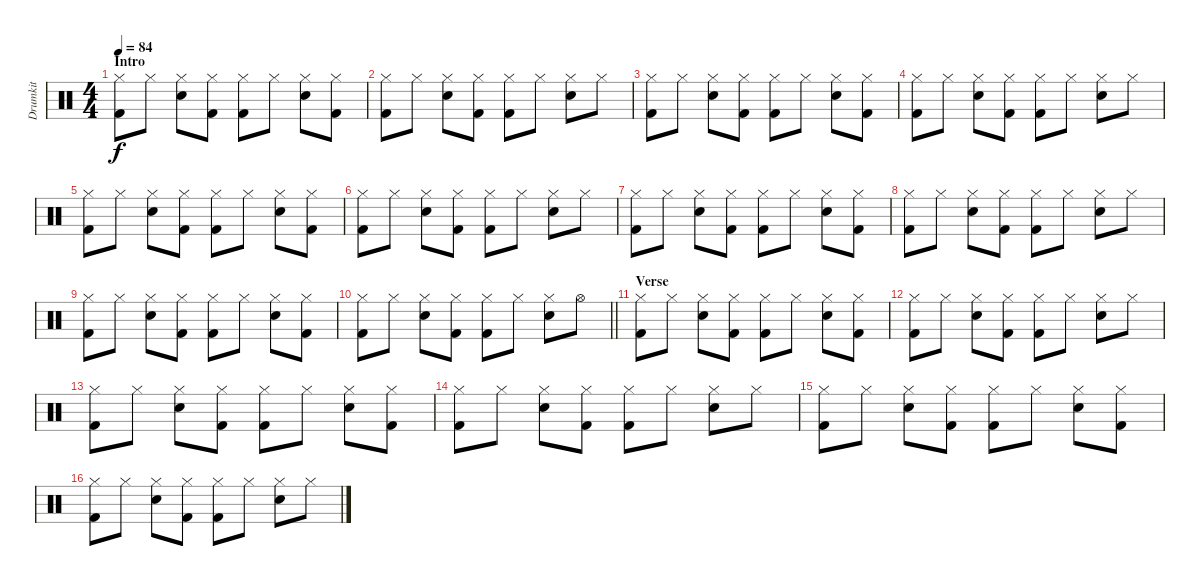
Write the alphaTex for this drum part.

\track ("Drumkit" "Drumkit") {instrument percussion}
\staff {score}
\articulation defaults
\ts (4 4)
\section ("" "Intro")
\tempo 84
\clef neutral
\ks c
("Kick (hit) 2" "Hi-Hat (closed)").8{dy f} "Hi-Hat (closed)".8 ("Hi-Hat (closed)" "Snare (hit) 2").8 ("Hi-Hat (closed)" "Kick (hit) 2").8 ("Kick (hit) 2" "Hi-Hat (closed)").8 "Hi-Hat (closed)".8 ("Hi-Hat (closed)" "Snare (hit) 2").8 ("Hi-Hat (closed)" "Kick (hit) 2").8 |
("Kick (hit) 2" "Hi-Hat (closed)").8 "Hi-Hat (closed)".8 ("Hi-Hat (closed)" "Snare (hit) 2").8 ("Hi-Hat (closed)" "Kick (hit) 2").8 ("Kick (hit) 2" "Hi-Hat (closed)").8 "Hi-Hat (closed)".8 ("Hi-Hat (closed)" "Snare (hit) 2").8 "Hi-Hat (closed)".8 |
("Kick (hit) 2" "Hi-Hat (closed)").8 "Hi-Hat (closed)".8 ("Hi-Hat (closed)" "Snare (hit) 2").8 ("Hi-Hat (closed)" "Kick (hit) 2").8 ("Kick (hit) 2" "Hi-Hat (closed)").8 "Hi-Hat (closed)".8 ("Hi-Hat (closed)" "Snare (hit) 2").8 ("Hi-Hat (closed)" "Kick (hit) 2").8 |
("Kick (hit) 2" "Hi-Hat (closed)").8 "Hi-Hat (closed)".8 ("Hi-Hat (closed)" "Snare (hit) 2").8 ("Hi-Hat (closed)" "Kick (hit) 2").8 ("Kick (hit) 2" "Hi-Hat (closed)").8 "Hi-Hat (closed)".8 ("Hi-Hat (closed)" "Snare (hit) 2").8 "Hi-Hat (closed)".8 |
("Kick (hit) 2" "Hi-Hat (closed)").8 "Hi-Hat (closed)".8 ("Hi-Hat (closed)" "Snare (hit) 2").8 ("Hi-Hat (closed)" "Kick (hit) 2").8 ("Kick (hit) 2" "Hi-Hat (closed)").8 "Hi-Hat (closed)".8 ("Hi-Hat (closed)" "Snare (hit) 2").8 ("Hi-Hat (closed)" "Kick (hit) 2").8 |
("Kick (hit) 2" "Hi-Hat (closed)").8 "Hi-Hat (closed)".8 ("Hi-Hat (closed)" "Snare (hit) 2").8 ("Hi-Hat (closed)" "Kick (hit) 2").8 ("Kick (hit) 2" "Hi-Hat (closed)").8 "Hi-Hat (closed)".8 ("Hi-Hat (closed)" "Snare (hit) 2").8 "Hi-Hat (closed)".8 |
("Kick (hit) 2" "Hi-Hat (closed)").8 "Hi-Hat (closed)".8 ("Hi-Hat (closed)" "Snare (hit) 2").8 ("Hi-Hat (closed)" "Kick (hit) 2").8 ("Kick (hit) 2" "Hi-Hat (closed)").8 "Hi-Hat (closed)".8 ("Hi-Hat (closed)" "Snare (hit) 2").8 ("Hi-Hat (closed)" "Kick (hit) 2").8 |
("Kick (hit) 2" "Hi-Hat (closed)").8 "Hi-Hat (closed)".8 ("Hi-Hat (closed)" "Snare (hit) 2").8 ("Hi-Hat (closed)" "Kick (hit) 2").8 ("Kick (hit) 2" "Hi-Hat (closed)").8 "Hi-Hat (closed)".8 ("Hi-Hat (closed)" "Snare (hit) 2").8 "Hi-Hat (closed)".8 |
("Kick (hit) 2" "Hi-Hat (closed)").8 "Hi-Hat (closed)".8 ("Hi-Hat (closed)" "Snare (hit) 2").8 ("Hi-Hat (closed)" "Kick (hit) 2").8 ("Kick (hit) 2" "Hi-Hat (closed)").8 "Hi-Hat (closed)".8 ("Hi-Hat (closed)" "Snare (hit) 2").8 ("Hi-Hat (closed)" "Kick (hit) 2").8 |
\barLineRight lightlight
("Kick (hit) 2" "Hi-Hat (closed)").8 "Hi-Hat (closed)".8 ("Hi-Hat (closed)" "Snare (hit) 2").8 ("Hi-Hat (closed)" "Kick (hit) 2").8 ("Kick (hit) 2" "Hi-Hat (closed)").8 "Hi-Hat (closed)".8 ("Hi-Hat (closed)" "Snare (hit) 2").8 "Hi-Hat (open)".8 |
\section ("" "Verse")
("Kick (hit) 2" "Hi-Hat (closed)").8 "Hi-Hat (closed)".8 ("Hi-Hat (closed)" "Snare (hit) 2").8 ("Hi-Hat (closed)" "Kick (hit) 2").8 ("Kick (hit) 2" "Hi-Hat (closed)").8 "Hi-Hat (closed)".8 ("Hi-Hat (closed)" "Snare (hit) 2").8 ("Hi-Hat (closed)" "Kick (hit) 2").8 |
("Kick (hit) 2" "Hi-Hat (closed)").8 "Hi-Hat (closed)".8 ("Hi-Hat (closed)" "Snare (hit) 2").8 ("Hi-Hat (closed)" "Kick (hit) 2").8 ("Kick (hit) 2" "Hi-Hat (closed)").8 "Hi-Hat (closed)".8 ("Hi-Hat (closed)" "Snare (hit) 2").8 "Hi-Hat (closed)".8 |
("Kick (hit) 2" "Hi-Hat (closed)").8 "Hi-Hat (closed)".8 ("Hi-Hat (closed)" "Snare (hit) 2").8 ("Hi-Hat (closed)" "Kick (hit) 2").8 ("Kick (hit) 2" "Hi-Hat (closed)").8 "Hi-Hat (closed)".8 ("Hi-Hat (closed)" "Snare (hit) 2").8 ("Hi-Hat (closed)" "Kick (hit) 2").8 |
("Kick (hit) 2" "Hi-Hat (closed)").8 "Hi-Hat (closed)".8 ("Hi-Hat (closed)" "Snare (hit) 2").8 ("Hi-Hat (closed)" "Kick (hit) 2").8 ("Kick (hit) 2" "Hi-Hat (closed)").8 "Hi-Hat (closed)".8 ("Hi-Hat (closed)" "Snare (hit) 2").8 "Hi-Hat (closed)".8 |
("Kick (hit) 2" "Hi-Hat (closed)").8 "Hi-Hat (closed)".8 ("Hi-Hat (closed)" "Snare (hit) 2").8 ("Hi-Hat (closed)" "Kick (hit) 2").8 ("Kick (hit) 2" "Hi-Hat (closed)").8 "Hi-Hat (closed)".8 ("Hi-Hat (closed)" "Snare (hit) 2").8 ("Hi-Hat (closed)" "Kick (hit) 2").8 |
("Kick (hit) 2" "Hi-Hat (closed)").8 "Hi-Hat (closed)".8 ("Hi-Hat (closed)" "Snare (hit) 2").8 ("Hi-Hat (closed)" "Kick (hit) 2").8 ("Kick (hit) 2" "Hi-Hat (closed)").8 "Hi-Hat (closed)".8 ("Hi-Hat (closed)" "Snare (hit) 2").8 "Hi-Hat (closed)".8
